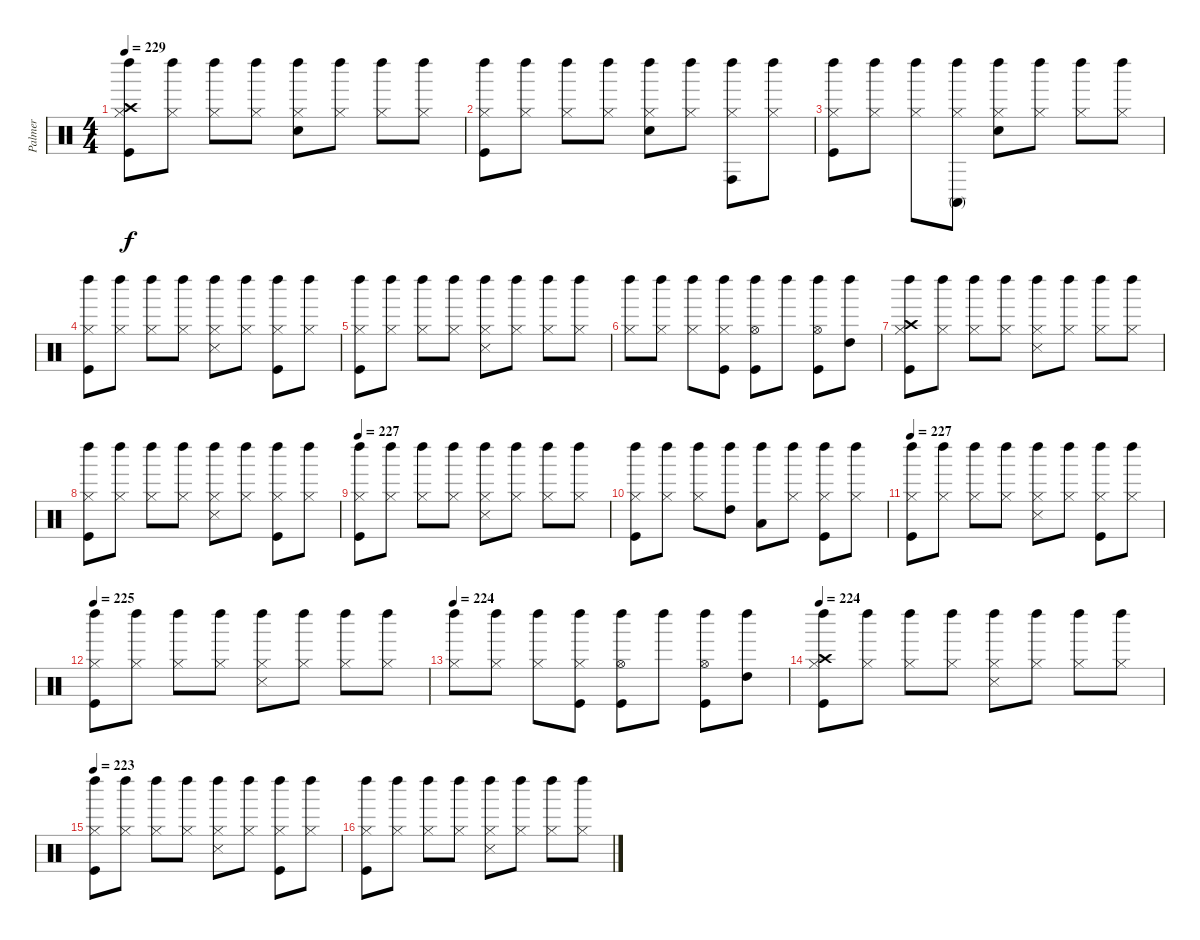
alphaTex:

\track ("Palmer" "Palmer") {instrument percussion}
\staff {score}
\articulation defaults
\ts (4 4)
\tempo 229
\clef neutral
\ks c
("Kick (hit)" "Hi-Hat (closed)" "Crash high (hit)" "Left Maraca (hit)").8{dy f} ("Hi-Hat (closed)" "Left Maraca (hit)").8 ("Hi-Hat (closed)" "Left Maraca (hit)").8 ("Hi-Hat (closed)" "Left Maraca (hit)").8 ("Snare (hit) 2" "Hi-Hat (closed)" "Left Maraca (hit)").8 ("Hi-Hat (closed)" "Left Maraca (hit)").8 ("Hi-Hat (closed)" "Left Maraca (hit)").8 ("Hi-Hat (closed)" "Left Maraca (hit)").8 |
("Kick (hit)" "Hi-Hat (closed)" "Left Maraca (hit)").8 ("Hi-Hat (closed)" "Left Maraca (hit)").8 ("Hi-Hat (closed)" "Left Maraca (hit)").8 ("Hi-Hat (closed)" "Left Maraca (hit)").8 ("Snare (hit) 2" "Hi-Hat (closed)" "Left Maraca (hit)").8 ("Hi-Hat (closed)" "Left Maraca (hit)").8 ("Hi-Hat (closed)" "Conga high (hit)" "Left Maraca (hit)").8 ("Hi-Hat (closed)" "Left Maraca (hit)").8 |
("Kick (hit)" "Hi-Hat (closed)" "Left Maraca (hit)").8 ("Hi-Hat (closed)" "Left Maraca (hit)").8 ("Hi-Hat (closed)" "Left Maraca (hit)").8 ("Hi-Hat (closed)" "Conga high (mute)" "Left Maraca (hit)").8 ("Snare (hit) 2" "Hi-Hat (closed)" "Left Maraca (hit)").8 ("Hi-Hat (closed)" "Left Maraca (hit)").8 ("Hi-Hat (closed)" "Left Maraca (hit)").8 ("Hi-Hat (closed)" "Left Maraca (hit)").8 |
("Kick (hit)" "Hi-Hat (closed)" "Left Maraca (hit)").8 ("Hi-Hat (closed)" "Left Maraca (hit)").8 ("Hi-Hat (closed)" "Left Maraca (hit)").8 ("Hi-Hat (closed)" "Left Maraca (hit)").8 ("Hi-Hat (closed)" "Snare (side stick) 3" "Left Maraca (hit)").8 ("Hi-Hat (closed)" "Left Maraca (hit)").8 ("Kick (hit)" "Hi-Hat (closed)" "Left Maraca (hit)").8 ("Hi-Hat (closed)" "Left Maraca (hit)").8 |
("Kick (hit)" "Hi-Hat (closed)" "Left Maraca (hit)").8 ("Hi-Hat (closed)" "Left Maraca (hit)").8 ("Hi-Hat (closed)" "Left Maraca (hit)").8 ("Hi-Hat (closed)" "Left Maraca (hit)").8 ("Hi-Hat (closed)" "Snare (side stick) 3" "Left Maraca (hit)").8 ("Hi-Hat (closed)" "Left Maraca (hit)").8 ("Hi-Hat (closed)" "Left Maraca (hit)").8 ("Hi-Hat (closed)" "Left Maraca (hit)").8 |
("Hi-Hat (closed)" "Left Maraca (hit)").8 ("Hi-Hat (closed)" "Left Maraca (hit)").8 ("Hi-Hat (closed)" "Left Maraca (hit)").8 ("Kick (hit)" "Hi-Hat (closed)" "Left Maraca (hit)").8 ("Kick (hit)" "Hi-Hat (open)" "Left Maraca (hit)").8 "Left Maraca (hit)".8 ("Kick (hit)" "Hi-Hat (open)" "Left Maraca (hit)").8 ("High Tom (hit)" "Left Maraca (hit)").8 |
("Kick (hit)" "Hi-Hat (closed)" "Crash high (hit)" "Left Maraca (hit)").8 ("Hi-Hat (closed)" "Left Maraca (hit)").8 ("Hi-Hat (closed)" "Left Maraca (hit)").8 ("Hi-Hat (closed)" "Left Maraca (hit)").8 ("Hi-Hat (closed)" "Snare (side stick) 3" "Left Maraca (hit)").8 ("Hi-Hat (closed)" "Left Maraca (hit)").8 ("Hi-Hat (closed)" "Left Maraca (hit)").8 ("Hi-Hat (closed)" "Left Maraca (hit)").8 |
("Kick (hit)" "Hi-Hat (closed)" "Left Maraca (hit)").8 ("Hi-Hat (closed)" "Left Maraca (hit)").8 ("Hi-Hat (closed)" "Left Maraca (hit)").8 ("Hi-Hat (closed)" "Left Maraca (hit)").8 ("Hi-Hat (closed)" "Snare (side stick) 3" "Left Maraca (hit)").8 ("Hi-Hat (closed)" "Left Maraca (hit)").8 ("Kick (hit)" "Hi-Hat (closed)" "Left Maraca (hit)").8 ("Hi-Hat (closed)" "Left Maraca (hit)").8 |
\tempo 227
("Kick (hit)" "Hi-Hat (closed)" "Left Maraca (hit)").8 ("Hi-Hat (closed)" "Left Maraca (hit)").8 ("Hi-Hat (closed)" "Left Maraca (hit)").8 ("Hi-Hat (closed)" "Left Maraca (hit)").8 ("Hi-Hat (closed)" "Snare (side stick) 3" "Left Maraca (hit)").8 ("Hi-Hat (closed)" "Left Maraca (hit)").8 ("Hi-Hat (closed)" "Left Maraca (hit)").8 ("Hi-Hat (closed)" "Left Maraca (hit)").8 |
("Kick (hit)" "Hi-Hat (closed)" "Left Maraca (hit)").8 ("Hi-Hat (closed)" "Left Maraca (hit)").8 ("Hi-Hat (closed)" "Left Maraca (hit)").8 ("High Tom (hit)" "Left Maraca (hit)").8 ("Low Tom (hit)" "Left Maraca (hit)").8 ("Hi-Hat (closed)" "Left Maraca (hit)").8 ("Kick (hit)" "Hi-Hat (closed)" "Left Maraca (hit)").8 ("Hi-Hat (closed)" "Left Maraca (hit)").8 |
\tempo 227
("Kick (hit)" "Hi-Hat (closed)" "Left Maraca (hit)").8 ("Hi-Hat (closed)" "Left Maraca (hit)").8 ("Hi-Hat (closed)" "Left Maraca (hit)").8 ("Hi-Hat (closed)" "Left Maraca (hit)").8 ("Hi-Hat (closed)" "Snare (side stick) 3" "Left Maraca (hit)").8 ("Hi-Hat (closed)" "Left Maraca (hit)").8 ("Kick (hit)" "Hi-Hat (closed)" "Left Maraca (hit)").8 ("Hi-Hat (closed)" "Left Maraca (hit)").8 |
\tempo 225
("Kick (hit)" "Hi-Hat (closed)" "Left Maraca (hit)").8 ("Hi-Hat (closed)" "Left Maraca (hit)").8 ("Hi-Hat (closed)" "Left Maraca (hit)").8 ("Hi-Hat (closed)" "Left Maraca (hit)").8 ("Hi-Hat (closed)" "Snare (side stick) 3" "Left Maraca (hit)").8 ("Hi-Hat (closed)" "Left Maraca (hit)").8 ("Hi-Hat (closed)" "Left Maraca (hit)").8 ("Hi-Hat (closed)" "Left Maraca (hit)").8 |
\tempo 224
("Hi-Hat (closed)" "Left Maraca (hit)").8 ("Hi-Hat (closed)" "Left Maraca (hit)").8 ("Hi-Hat (closed)" "Left Maraca (hit)").8 ("Kick (hit)" "Hi-Hat (closed)" "Left Maraca (hit)").8 ("Kick (hit)" "Hi-Hat (open)" "Left Maraca (hit)").8 "Left Maraca (hit)".8 ("Kick (hit)" "Hi-Hat (open)" "Left Maraca (hit)").8 ("High Tom (hit)" "Left Maraca (hit)").8 |
\tempo 224
("Kick (hit)" "Hi-Hat (closed)" "Crash high (hit)" "Left Maraca (hit)").8 ("Hi-Hat (closed)" "Left Maraca (hit)").8 ("Hi-Hat (closed)" "Left Maraca (hit)").8 ("Hi-Hat (closed)" "Left Maraca (hit)").8 ("Hi-Hat (closed)" "Snare (side stick) 3" "Left Maraca (hit)").8 ("Hi-Hat (closed)" "Left Maraca (hit)").8 ("Hi-Hat (closed)" "Left Maraca (hit)").8 ("Hi-Hat (closed)" "Left Maraca (hit)").8 |
\tempo 223
("Kick (hit)" "Hi-Hat (closed)" "Left Maraca (hit)").8 ("Hi-Hat (closed)" "Left Maraca (hit)").8 ("Hi-Hat (closed)" "Left Maraca (hit)").8 ("Hi-Hat (closed)" "Left Maraca (hit)").8 ("Hi-Hat (closed)" "Snare (side stick) 3" "Left Maraca (hit)").8 ("Hi-Hat (closed)" "Left Maraca (hit)").8 ("Kick (hit)" "Hi-Hat (closed)" "Left Maraca (hit)").8 ("Hi-Hat (closed)" "Left Maraca (hit)").8 |
("Kick (hit)" "Hi-Hat (closed)" "Left Maraca (hit)").8 ("Hi-Hat (closed)" "Left Maraca (hit)").8 ("Hi-Hat (closed)" "Left Maraca (hit)").8 ("Hi-Hat (closed)" "Left Maraca (hit)").8 ("Hi-Hat (closed)" "Snare (side stick) 3" "Left Maraca (hit)").8 ("Hi-Hat (closed)" "Left Maraca (hit)").8 ("Hi-Hat (closed)" "Left Maraca (hit)").8 ("Hi-Hat (closed)" "Left Maraca (hit)").8
